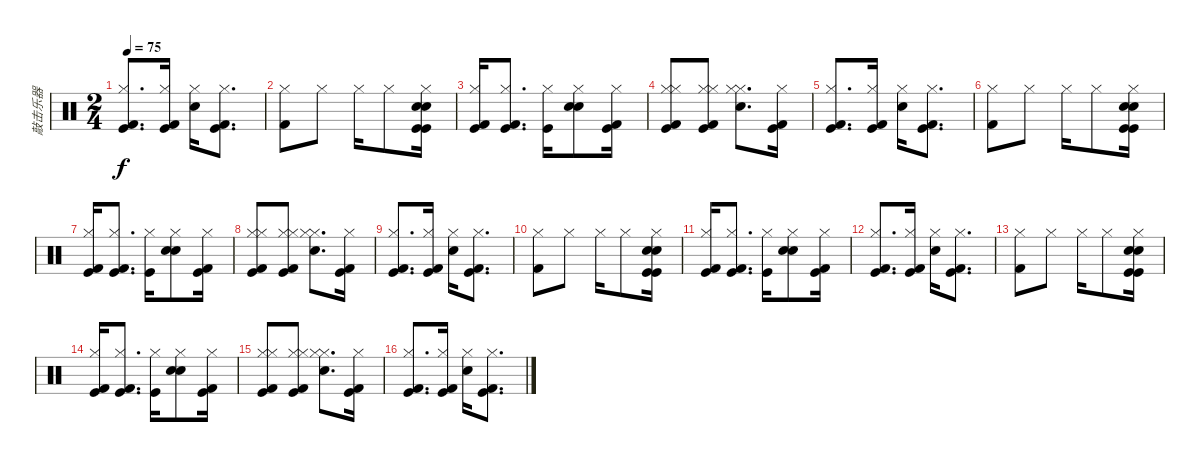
\track ("敲击乐器" "敲击乐器") {instrument percussion}
\staff {score}
\articulation defaults
\ts (2 4)
\tempo 75
\clef neutral
\ks c
("Kick (hit) 2" "Hi-Hat (closed)" "Kick (hit)").8{d dy f} ("Hi-Hat (closed)" "Kick (hit) 2" "Kick (hit)").16 ("Hi-Hat (closed)" "Snare (hit) 2").16 ("Hi-Hat (closed)" "Kick (hit)" "Kick (hit) 2").8{d} |
("Kick (hit) 2" "Hi-Hat (closed)").8 "Hi-Hat (closed)".8 "Hi-Hat (closed)".16 "Hi-Hat (closed)".8 ("Hand Clap (hit)" "Snare (hit) 2" "Hi-Hat (closed)" "Kick (hit)" "Kick (hit)").16 |
("Kick (hit)" "Kick (hit) 2" "Hi-Hat (closed)").16 ("Kick (hit)" "Kick (hit) 2" "Hi-Hat (closed)").8{d} ("Kick (hit)" "Hi-Hat (closed)").16 ("Hand Clap (hit)" "Snare (hit) 2" "Hi-Hat (closed)").8 ("Kick (hit) 2" "Kick (hit)" "Hi-Hat (closed)").16 |
("Kick (hit) 2" "Hi-Hat (closed)" "Kick (hit)" "Hi-Hat (closed)").8 ("Hi-Hat (closed)" "Kick (hit) 2" "Kick (hit)" "Hi-Hat (closed)").8 ("Hi-Hat (closed)" "Snare (hit) 2" "Hi-Hat (closed)").8{d} ("Hi-Hat (closed)" "Kick (hit)" "Kick (hit) 2").16 |
("Kick (hit) 2" "Hi-Hat (closed)" "Kick (hit)").8{d} ("Hi-Hat (closed)" "Kick (hit) 2" "Kick (hit)").16 ("Hi-Hat (closed)" "Snare (hit) 2").16 ("Hi-Hat (closed)" "Kick (hit)" "Kick (hit) 2").8{d} |
("Kick (hit) 2" "Hi-Hat (closed)").8 "Hi-Hat (closed)".8 "Hi-Hat (closed)".16 "Hi-Hat (closed)".8 ("Hand Clap (hit)" "Snare (hit) 2" "Hi-Hat (closed)" "Kick (hit)" "Kick (hit)").16 |
("Kick (hit)" "Kick (hit) 2" "Hi-Hat (closed)").16 ("Kick (hit)" "Kick (hit) 2" "Hi-Hat (closed)").8{d} ("Kick (hit)" "Hi-Hat (closed)").16 ("Hand Clap (hit)" "Snare (hit) 2" "Hi-Hat (closed)").8 ("Kick (hit) 2" "Kick (hit)" "Hi-Hat (closed)").16 |
("Kick (hit) 2" "Hi-Hat (closed)" "Kick (hit)" "Hi-Hat (closed)").8 ("Hi-Hat (closed)" "Kick (hit) 2" "Kick (hit)" "Hi-Hat (closed)").8 ("Hi-Hat (closed)" "Snare (hit) 2" "Hi-Hat (closed)").8{d} ("Hi-Hat (closed)" "Kick (hit)" "Kick (hit) 2").16 |
("Kick (hit) 2" "Hi-Hat (closed)" "Kick (hit)").8{d} ("Hi-Hat (closed)" "Kick (hit) 2" "Kick (hit)").16 ("Hi-Hat (closed)" "Snare (hit) 2").16 ("Hi-Hat (closed)" "Kick (hit)" "Kick (hit) 2").8{d} |
("Kick (hit) 2" "Hi-Hat (closed)").8 "Hi-Hat (closed)".8 "Hi-Hat (closed)".16 "Hi-Hat (closed)".8 ("Hand Clap (hit)" "Snare (hit) 2" "Hi-Hat (closed)" "Kick (hit)" "Kick (hit)").16 |
("Kick (hit)" "Kick (hit) 2" "Hi-Hat (closed)").16 ("Kick (hit)" "Kick (hit) 2" "Hi-Hat (closed)").8{d} ("Kick (hit)" "Hi-Hat (closed)").16 ("Hand Clap (hit)" "Snare (hit) 2" "Hi-Hat (closed)").8 ("Kick (hit) 2" "Kick (hit)" "Hi-Hat (closed)").16 |
("Kick (hit) 2" "Hi-Hat (closed)" "Kick (hit)").8{d} ("Hi-Hat (closed)" "Kick (hit) 2" "Kick (hit)").16 ("Hi-Hat (closed)" "Snare (hit) 2").16 ("Hi-Hat (closed)" "Kick (hit)" "Kick (hit) 2").8{d} |
("Kick (hit) 2" "Hi-Hat (closed)").8 "Hi-Hat (closed)".8 "Hi-Hat (closed)".16 "Hi-Hat (closed)".8 ("Hand Clap (hit)" "Snare (hit) 2" "Hi-Hat (closed)" "Kick (hit)" "Kick (hit)").16 |
("Kick (hit)" "Kick (hit) 2" "Hi-Hat (closed)").16 ("Kick (hit)" "Kick (hit) 2" "Hi-Hat (closed)").8{d} ("Kick (hit)" "Hi-Hat (closed)").16 ("Hand Clap (hit)" "Snare (hit) 2" "Hi-Hat (closed)").8 ("Kick (hit) 2" "Kick (hit)" "Hi-Hat (closed)").16 |
("Kick (hit) 2" "Hi-Hat (closed)" "Kick (hit)" "Hi-Hat (closed)").8 ("Hi-Hat (closed)" "Kick (hit) 2" "Kick (hit)" "Hi-Hat (closed)").8 ("Hi-Hat (closed)" "Snare (hit) 2" "Hi-Hat (closed)").8{d} ("Hi-Hat (closed)" "Kick (hit)" "Kick (hit) 2").16 |
("Kick (hit) 2" "Hi-Hat (closed)" "Kick (hit)").8{d} ("Hi-Hat (closed)" "Kick (hit) 2" "Kick (hit)").16 ("Hi-Hat (closed)" "Snare (hit) 2").16 ("Hi-Hat (closed)" "Kick (hit)" "Kick (hit) 2").8{d}
